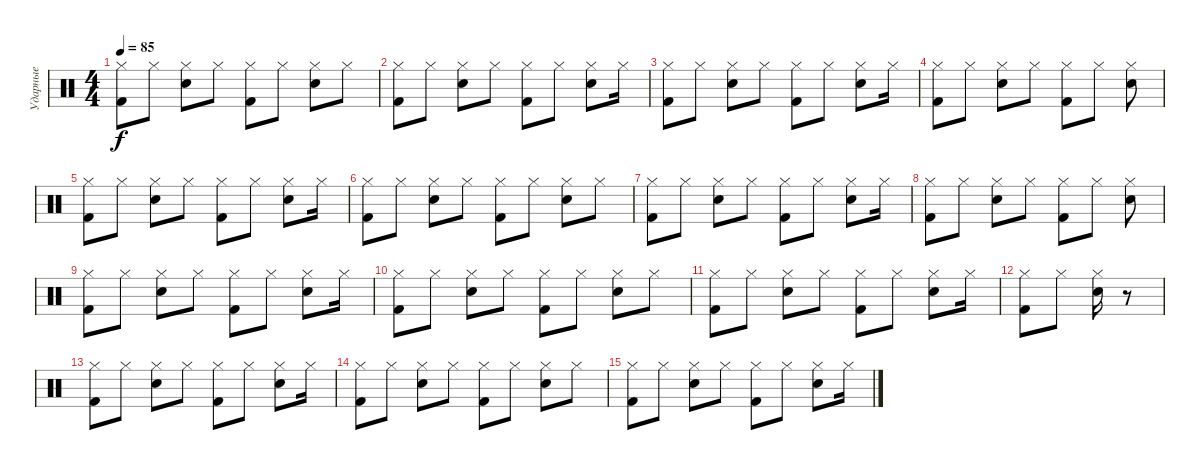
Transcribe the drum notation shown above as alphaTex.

\track ("Ударные" "Ударные") {instrument percussion}
\staff {score}
\articulation defaults
\ts (4 4)
\tempo 85
\clef neutral
\ks c
("Hi-Hat (closed)" "Kick (hit) 2").8{dy f} "Hi-Hat (closed)".8 ("Hi-Hat (closed)" "Snare (hit) 2").8 "Hi-Hat (closed)".8 ("Hi-Hat (closed)" "Kick (hit) 2").8 "Hi-Hat (closed)".8 ("Hi-Hat (closed)" "Snare (hit) 2").8 "Hi-Hat (closed)".8 |
("Hi-Hat (closed)" "Kick (hit) 2").8 "Hi-Hat (closed)".8 ("Hi-Hat (closed)" "Snare (hit) 2").8 "Hi-Hat (closed)".8 ("Hi-Hat (closed)" "Kick (hit) 2").8 "Hi-Hat (closed)".8 ("Hi-Hat (closed)" "Snare (hit) 2").8 "Hi-Hat (closed)".16 |
("Hi-Hat (closed)" "Kick (hit) 2").8 "Hi-Hat (closed)".8 ("Hi-Hat (closed)" "Snare (hit) 2").8 "Hi-Hat (closed)".8 ("Hi-Hat (closed)" "Kick (hit) 2").8 "Hi-Hat (closed)".8 ("Hi-Hat (closed)" "Snare (hit) 2").8 "Hi-Hat (closed)".16 |
("Hi-Hat (closed)" "Kick (hit) 2").8 "Hi-Hat (closed)".8 ("Hi-Hat (closed)" "Snare (hit) 2").8 "Hi-Hat (closed)".8 ("Hi-Hat (closed)" "Kick (hit) 2").8 "Hi-Hat (closed)".8 ("Hi-Hat (closed)" "Snare (hit) 2").8 |
("Hi-Hat (closed)" "Kick (hit) 2").8 "Hi-Hat (closed)".8 ("Hi-Hat (closed)" "Snare (hit) 2").8 "Hi-Hat (closed)".8 ("Hi-Hat (closed)" "Kick (hit) 2").8 "Hi-Hat (closed)".8 ("Hi-Hat (closed)" "Snare (hit) 2").8 "Hi-Hat (closed)".16 |
("Hi-Hat (closed)" "Kick (hit) 2").8 "Hi-Hat (closed)".8 ("Hi-Hat (closed)" "Snare (hit) 2").8 "Hi-Hat (closed)".8 ("Hi-Hat (closed)" "Kick (hit) 2").8 "Hi-Hat (closed)".8 ("Hi-Hat (closed)" "Snare (hit) 2").8 "Hi-Hat (closed)".8 |
("Hi-Hat (closed)" "Kick (hit) 2").8 "Hi-Hat (closed)".8 ("Hi-Hat (closed)" "Snare (hit) 2").8 "Hi-Hat (closed)".8 ("Hi-Hat (closed)" "Kick (hit) 2").8 "Hi-Hat (closed)".8 ("Hi-Hat (closed)" "Snare (hit) 2").8 "Hi-Hat (closed)".16 |
("Hi-Hat (closed)" "Kick (hit) 2").8 "Hi-Hat (closed)".8 ("Hi-Hat (closed)" "Snare (hit) 2").8 "Hi-Hat (closed)".8 ("Hi-Hat (closed)" "Kick (hit) 2").8 "Hi-Hat (closed)".8 ("Hi-Hat (closed)" "Snare (hit) 2").8 |
("Hi-Hat (closed)" "Kick (hit) 2").8 "Hi-Hat (closed)".8 ("Hi-Hat (closed)" "Snare (hit) 2").8 "Hi-Hat (closed)".8 ("Hi-Hat (closed)" "Kick (hit) 2").8 "Hi-Hat (closed)".8 ("Hi-Hat (closed)" "Snare (hit) 2").8 "Hi-Hat (closed)".16 |
("Hi-Hat (closed)" "Kick (hit) 2").8 "Hi-Hat (closed)".8 ("Hi-Hat (closed)" "Snare (hit) 2").8 "Hi-Hat (closed)".8 ("Hi-Hat (closed)" "Kick (hit) 2").8 "Hi-Hat (closed)".8 ("Hi-Hat (closed)" "Snare (hit) 2").8 "Hi-Hat (closed)".8 |
("Hi-Hat (closed)" "Kick (hit) 2").8 "Hi-Hat (closed)".8 ("Hi-Hat (closed)" "Snare (hit) 2").8 "Hi-Hat (closed)".8 ("Hi-Hat (closed)" "Kick (hit) 2").8 "Hi-Hat (closed)".8 ("Hi-Hat (closed)" "Snare (hit) 2").8 "Hi-Hat (closed)".16 |
("Hi-Hat (closed)" "Kick (hit) 2").8 "Hi-Hat (closed)".8 ("Hi-Hat (closed)" "Snare (hit) 2").16 r.8 |
("Hi-Hat (closed)" "Kick (hit) 2").8 "Hi-Hat (closed)".8 ("Hi-Hat (closed)" "Snare (hit) 2").8 "Hi-Hat (closed)".8 ("Hi-Hat (closed)" "Kick (hit) 2").8 "Hi-Hat (closed)".8 ("Hi-Hat (closed)" "Snare (hit) 2").8 "Hi-Hat (closed)".16 |
("Hi-Hat (closed)" "Kick (hit) 2").8 "Hi-Hat (closed)".8 ("Hi-Hat (closed)" "Snare (hit) 2").8 "Hi-Hat (closed)".8 ("Hi-Hat (closed)" "Kick (hit) 2").8 "Hi-Hat (closed)".8 ("Hi-Hat (closed)" "Snare (hit) 2").8 "Hi-Hat (closed)".8 |
("Hi-Hat (closed)" "Kick (hit) 2").8 "Hi-Hat (closed)".8 ("Hi-Hat (closed)" "Snare (hit) 2").8 "Hi-Hat (closed)".8 ("Hi-Hat (closed)" "Kick (hit) 2").8 "Hi-Hat (closed)".8 ("Hi-Hat (closed)" "Snare (hit) 2").8 "Hi-Hat (closed)".16
